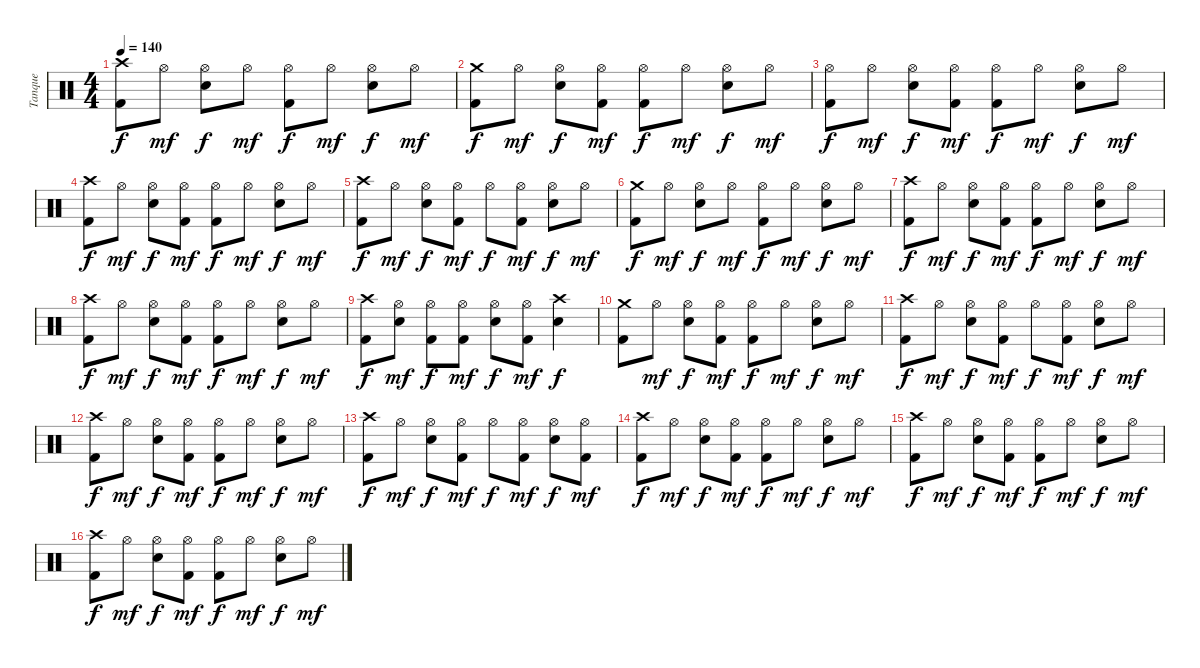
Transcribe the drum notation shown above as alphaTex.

\track ("Tanque" "Tanque") {instrument percussion}
\staff {score}
\articulation defaults
\ts (4 4)
\tempo 140
\clef neutral
\ks c
("Crash high (hit)" "Kick (hit) 2").8{dy f} "Hi-Hat (open)".8{dy mf} ("Hi-Hat (open)" "Electric Snare (hit)").8{dy f} "Hi-Hat (open)".8{dy mf} ("Hi-Hat (open)" "Kick (hit) 2").8{dy f} "Hi-Hat (open)".8{dy mf} ("Hi-Hat (open)" "Electric Snare (hit)").8{dy f} "Hi-Hat (open)".8{dy mf} |
("Crash medium (hit)" "Kick (hit) 2").8{dy f} "Hi-Hat (open)".8{dy mf} ("Hi-Hat (open)" "Electric Snare (hit)").8{dy f} ("Hi-Hat (open)" "Kick (hit) 2").8{dy mf} ("Hi-Hat (open)" "Kick (hit) 2").8{dy f} "Hi-Hat (open)".8{dy mf} ("Hi-Hat (open)" "Electric Snare (hit)").8{dy f} "Hi-Hat (open)".8{dy mf} |
("Hi-Hat (open)" "Kick (hit) 2").8{dy f} "Hi-Hat (open)".8{dy mf} ("Hi-Hat (open)" "Electric Snare (hit)").8{dy f} ("Hi-Hat (open)" "Kick (hit) 2").8{dy mf} ("Hi-Hat (open)" "Kick (hit) 2").8{dy f} "Hi-Hat (open)".8{dy mf} ("Hi-Hat (open)" "Electric Snare (hit)").8{dy f} "Hi-Hat (open)".8{dy mf} |
("Crash high (hit)" "Kick (hit) 2").8{dy f} "Hi-Hat (open)".8{dy mf} ("Hi-Hat (open)" "Electric Snare (hit)").8{dy f} ("Hi-Hat (open)" "Kick (hit) 2").8{dy mf} ("Hi-Hat (open)" "Kick (hit) 2").8{dy f} "Hi-Hat (open)".8{dy mf} ("Hi-Hat (open)" "Electric Snare (hit)").8{dy f} "Hi-Hat (open)".8{dy mf} |
("Crash high (hit)" "Kick (hit) 2").8{dy f} "Hi-Hat (open)".8{dy mf} ("Hi-Hat (open)" "Electric Snare (hit)").8{dy f} ("Hi-Hat (open)" "Kick (hit) 2").8{dy mf} "Hi-Hat (open)".8{dy f} ("Hi-Hat (open)" "Kick (hit) 2").8{dy mf} ("Hi-Hat (open)" "Electric Snare (hit)").8{dy f} "Hi-Hat (open)".8{dy mf} |
("Crash medium (hit)" "Kick (hit) 2").8{dy f} "Hi-Hat (open)".8{dy mf} ("Hi-Hat (open)" "Electric Snare (hit)").8{dy f} "Hi-Hat (open)".8{dy mf} ("Hi-Hat (open)" "Kick (hit) 2").8{dy f} "Hi-Hat (open)".8{dy mf} ("Hi-Hat (open)" "Electric Snare (hit)").8{dy f} "Hi-Hat (open)".8{dy mf} |
("Crash high (hit)" "Kick (hit) 2").8{dy f} "Hi-Hat (open)".8{dy mf} ("Hi-Hat (open)" "Electric Snare (hit)").8{dy f} ("Hi-Hat (open)" "Kick (hit) 2").8{dy mf} ("Hi-Hat (open)" "Kick (hit) 2").8{dy f} "Hi-Hat (open)".8{dy mf} ("Hi-Hat (open)" "Electric Snare (hit)").8{dy f} "Hi-Hat (open)".8{dy mf} |
("Crash high (hit)" "Kick (hit) 2").8{dy f} "Hi-Hat (open)".8{dy mf} ("Hi-Hat (open)" "Electric Snare (hit)").8{dy f} ("Hi-Hat (open)" "Kick (hit) 2").8{dy mf} ("Hi-Hat (open)" "Kick (hit) 2").8{dy f} "Hi-Hat (open)".8{dy mf} ("Hi-Hat (open)" "Electric Snare (hit)").8{dy f} "Hi-Hat (open)".8{dy mf} |
("Crash high (hit)" "Kick (hit) 2").8{dy f} ("Hi-Hat (open)" "Electric Snare (hit)").8{dy mf} ("Hi-Hat (open)" "Kick (hit) 2").8{dy f} ("Hi-Hat (open)" "Kick (hit) 2").8{dy mf} ("Hi-Hat (open)" "Electric Snare (hit)").8{dy f} ("Hi-Hat (open)" "Kick (hit) 2").8{dy mf} ("Crash high (hit)" "Electric Snare (hit)").4{dy f} |
("Crash medium (hit)" "Kick (hit) 2").8 "Hi-Hat (open)".8{dy mf} ("Hi-Hat (open)" "Electric Snare (hit)").8{dy f} ("Hi-Hat (open)" "Kick (hit) 2").8{dy mf} ("Hi-Hat (open)" "Kick (hit) 2").8{dy f} "Hi-Hat (open)".8{dy mf} ("Hi-Hat (open)" "Electric Snare (hit)").8{dy f} "Hi-Hat (open)".8{dy mf} |
("Crash high (hit)" "Kick (hit) 2").8{dy f} "Hi-Hat (open)".8{dy mf} ("Hi-Hat (open)" "Electric Snare (hit)").8{dy f} ("Hi-Hat (open)" "Kick (hit) 2").8{dy mf} "Hi-Hat (open)".8{dy f} ("Hi-Hat (open)" "Kick (hit) 2").8{dy mf} ("Hi-Hat (open)" "Electric Snare (hit)").8{dy f} "Hi-Hat (open)".8{dy mf} |
("Crash high (hit)" "Kick (hit) 2").8{dy f} "Hi-Hat (open)".8{dy mf} ("Hi-Hat (open)" "Electric Snare (hit)").8{dy f} ("Hi-Hat (open)" "Kick (hit) 2").8{dy mf} ("Hi-Hat (open)" "Kick (hit) 2").8{dy f} "Hi-Hat (open)".8{dy mf} ("Hi-Hat (open)" "Electric Snare (hit)").8{dy f} "Hi-Hat (open)".8{dy mf} |
("Crash high (hit)" "Kick (hit) 2").8{dy f} "Hi-Hat (open)".8{dy mf} ("Hi-Hat (open)" "Electric Snare (hit)").8{dy f} ("Hi-Hat (open)" "Kick (hit) 2").8{dy mf} "Hi-Hat (open)".8{dy f} ("Hi-Hat (open)" "Kick (hit) 2").8{dy mf} ("Hi-Hat (open)" "Electric Snare (hit)").8{dy f} ("Hi-Hat (open)" "Kick (hit) 2").8{dy mf} |
("Crash high (hit)" "Kick (hit) 2").8{dy f} "Hi-Hat (open)".8{dy mf} ("Hi-Hat (open)" "Electric Snare (hit)").8{dy f} ("Hi-Hat (open)" "Kick (hit) 2").8{dy mf} ("Hi-Hat (open)" "Kick (hit) 2").8{dy f} "Hi-Hat (open)".8{dy mf} ("Hi-Hat (open)" "Electric Snare (hit)").8{dy f} "Hi-Hat (open)".8{dy mf} |
("Crash high (hit)" "Kick (hit) 2").8{dy f} "Hi-Hat (open)".8{dy mf} ("Hi-Hat (open)" "Electric Snare (hit)").8{dy f} ("Hi-Hat (open)" "Kick (hit) 2").8{dy mf} ("Hi-Hat (open)" "Kick (hit) 2").8{dy f} "Hi-Hat (open)".8{dy mf} ("Hi-Hat (open)" "Electric Snare (hit)").8{dy f} "Hi-Hat (open)".8{dy mf} |
("Crash high (hit)" "Kick (hit) 2").8{dy f} "Hi-Hat (open)".8{dy mf} ("Hi-Hat (open)" "Electric Snare (hit)").8{dy f} ("Hi-Hat (open)" "Kick (hit) 2").8{dy mf} ("Hi-Hat (open)" "Kick (hit) 2").8{dy f} "Hi-Hat (open)".8{dy mf} ("Hi-Hat (open)" "Electric Snare (hit)").8{dy f} "Hi-Hat (open)".8{dy mf}
